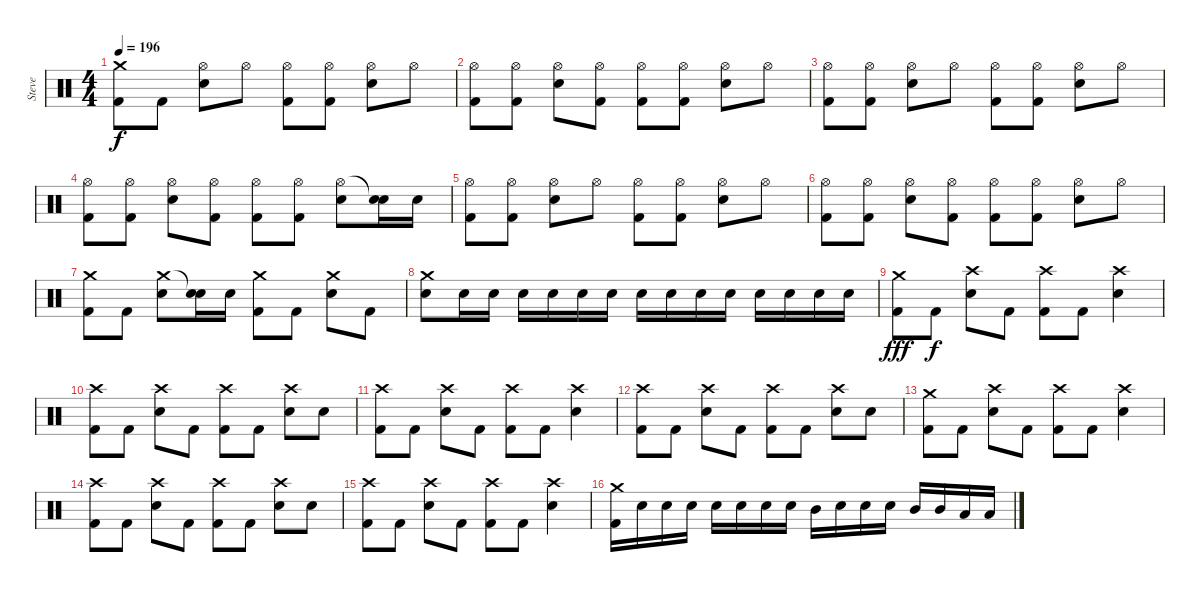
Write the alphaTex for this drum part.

\track ("Steve" "Steve") {instrument percussion}
\staff {score}
\articulation defaults
\ts (4 4)
\tempo 196
\clef neutral
\ks c
("Crash medium (hit)" "Kick (hit) 2").8{dy f} "Kick (hit) 2".8 ("Hi-Hat (open)" "Electric Snare (hit)").8 "Hi-Hat (open)".8 ("Hi-Hat (open)" "Kick (hit) 2").8 ("Hi-Hat (open)" "Kick (hit) 2").8 ("Hi-Hat (open)" "Electric Snare (hit)").8 "Hi-Hat (open)".8 |
("Hi-Hat (open)" "Kick (hit) 2").8 ("Hi-Hat (open)" "Kick (hit) 2").8 ("Hi-Hat (open)" "Electric Snare (hit)").8 ("Hi-Hat (open)" "Kick (hit) 2").8 ("Hi-Hat (open)" "Kick (hit) 2").8 ("Hi-Hat (open)" "Kick (hit) 2").8 ("Hi-Hat (open)" "Electric Snare (hit)").8 "Hi-Hat (open)".8 |
("Hi-Hat (open)" "Kick (hit) 2").8 ("Hi-Hat (open)" "Kick (hit) 2").8 ("Hi-Hat (open)" "Electric Snare (hit)").8 "Hi-Hat (open)".8 ("Hi-Hat (open)" "Kick (hit) 2").8 ("Hi-Hat (open)" "Kick (hit) 2").8 ("Hi-Hat (open)" "Electric Snare (hit)").8 "Hi-Hat (open)".8 |
("Hi-Hat (open)" "Kick (hit) 2").8 ("Hi-Hat (open)" "Kick (hit) 2").8 ("Hi-Hat (open)" "Electric Snare (hit)").8 ("Hi-Hat (open)" "Kick (hit) 2").8 ("Hi-Hat (open)" "Kick (hit) 2").8 ("Hi-Hat (open)" "Kick (hit) 2").8 ("Hi-Hat (open)" "Electric Snare (hit)").8 ("Snare (hit)"{t} "Electric Snare (hit)").16 "Electric Snare (hit)".16 |
("Hi-Hat (open)" "Kick (hit) 2").8 ("Hi-Hat (open)" "Kick (hit) 2").8 ("Hi-Hat (open)" "Electric Snare (hit)").8 "Hi-Hat (open)".8 ("Hi-Hat (open)" "Kick (hit) 2").8 ("Hi-Hat (open)" "Kick (hit) 2").8 ("Hi-Hat (open)" "Electric Snare (hit)").8 "Hi-Hat (open)".8 |
("Hi-Hat (open)" "Kick (hit) 2").8 ("Hi-Hat (open)" "Kick (hit) 2").8 ("Hi-Hat (open)" "Electric Snare (hit)").8 ("Hi-Hat (open)" "Kick (hit) 2").8 ("Hi-Hat (open)" "Kick (hit) 2").8 ("Hi-Hat (open)" "Kick (hit) 2").8 ("Hi-Hat (open)" "Electric Snare (hit)").8 "Hi-Hat (open)".8 |
("Crash medium (hit)" "Kick (hit) 2").8 "Kick (hit) 2".8 ("Crash medium (hit)" "Electric Snare (hit)").8 ("Snare (hit)"{t} "Electric Snare (hit)").16 "Electric Snare (hit)".16 ("Crash medium (hit)" "Kick (hit) 2").8 "Kick (hit) 2".8 ("Crash medium (hit)" "Electric Snare (hit)").8 "Kick (hit) 2".8 |
("Crash medium (hit)" "Electric Snare (hit)").8 "Electric Snare (hit)".16 "Electric Snare (hit)".16 "Electric Snare (hit)".16 "Electric Snare (hit)".16 "Electric Snare (hit)".16 "Electric Snare (hit)".16 "Electric Snare (hit)".16 "Electric Snare (hit)".16 "Electric Snare (hit)".16 "Electric Snare (hit)".16 "Electric Snare (hit)".16 "Electric Snare (hit)".16 "Electric Snare (hit)".16 "Electric Snare (hit)".16 |
("Crash medium (hit)" "Kick (hit) 2").8{dy fff} "Kick (hit) 2".8{dy f} ("Crash high (hit)" "Electric Snare (hit)").8 "Kick (hit) 2".8 ("Crash high (hit)" "Kick (hit) 2").8 "Kick (hit) 2".8 ("Crash high (hit)" "Electric Snare (hit)").4 |
("Crash high (hit)" "Kick (hit) 2").8 "Kick (hit) 2".8 ("Crash high (hit)" "Electric Snare (hit)").8 "Kick (hit) 2".8 ("Crash high (hit)" "Kick (hit) 2").8 "Kick (hit) 2".8 ("Crash high (hit)" "Electric Snare (hit)").8 "Electric Snare (hit)".8 |
("Crash high (hit)" "Kick (hit) 2").8 "Kick (hit) 2".8 ("Crash high (hit)" "Electric Snare (hit)").8 "Kick (hit) 2".8 ("Crash high (hit)" "Kick (hit) 2").8 "Kick (hit) 2".8 ("Crash high (hit)" "Electric Snare (hit)").4 |
("Crash high (hit)" "Kick (hit) 2").8 "Kick (hit) 2".8 ("Crash high (hit)" "Electric Snare (hit)").8 "Kick (hit) 2".8 ("Crash high (hit)" "Kick (hit) 2").8 "Kick (hit) 2".8 ("Crash high (hit)" "Electric Snare (hit)").8 "Electric Snare (hit)".8 |
("Crash medium (hit)" "Kick (hit) 2").8 "Kick (hit) 2".8 ("Crash high (hit)" "Electric Snare (hit)").8 "Kick (hit) 2".8 ("Crash high (hit)" "Kick (hit) 2").8 "Kick (hit) 2".8 ("Crash high (hit)" "Electric Snare (hit)").4 |
("Crash high (hit)" "Kick (hit) 2").8 "Kick (hit) 2".8 ("Crash high (hit)" "Electric Snare (hit)").8 "Kick (hit) 2".8 ("Crash high (hit)" "Kick (hit) 2").8 "Kick (hit) 2".8 ("Crash high (hit)" "Electric Snare (hit)").8 "Electric Snare (hit)".8 |
("Crash high (hit)" "Kick (hit) 2").8 "Kick (hit) 2".8 ("Crash high (hit)" "Electric Snare (hit)").8 "Kick (hit) 2".8 ("Crash high (hit)" "Kick (hit) 2").8 "Kick (hit) 2".8 ("Crash high (hit)" "Electric Snare (hit)").4 |
("Crash medium (hit)" "Kick (hit) 2").16 "Electric Snare (hit)".16 "Electric Snare (hit)".16 "Electric Snare (hit)".16 "Electric Snare (hit)".16 "Electric Snare (hit)".16 "Electric Snare (hit)".16 "Electric Snare (hit)".16 "Mid Tom (hit)".16 "Electric Snare (hit)".16 "Electric Snare (hit)".16 "Electric Snare (hit)".16 "Mid Tom (hit)".16 "Mid Tom (hit)".16 "Low Tom (hit)".16 "Low Tom (hit)".16
